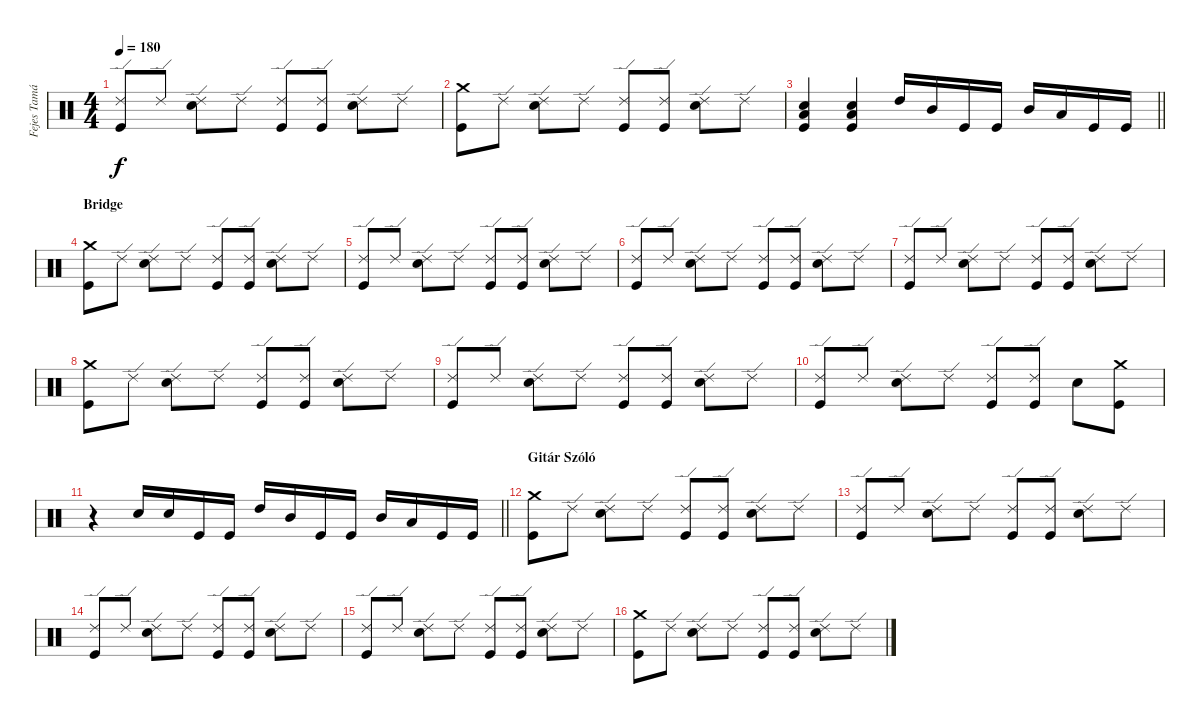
\track ("Fejes Tamás - Dob" "Fejes Tamá") {instrument percussion}
\staff {score}
\articulation defaults
\ts (4 4)
\tempo 180
\clef neutral
\ks c
("Ride (edge) 2" "Kick (hit)").8{dy f} "Ride (edge) 2".8 ("Ride (edge) 2" "Electric Snare (hit)").8 "Ride (edge) 2".8 ("Ride (edge) 2" "Kick (hit)").8 ("Ride (edge) 2" "Kick (hit)").8 ("Ride (edge) 2" "Electric Snare (hit)").8 "Ride (edge) 2".8 |
("Crash medium (hit)" "Kick (hit)").8 "Ride (edge) 2".8 ("Ride (edge) 2" "Electric Snare (hit)").8 "Ride (edge) 2".8 ("Ride (edge) 2" "Kick (hit)").8 ("Ride (edge) 2" "Kick (hit)").8 ("Ride (edge) 2" "Electric Snare (hit)").8 "Ride (edge) 2".8 |
\barLineRight lightlight
("Electric Snare (hit)" "Low Tom (hit)" "Kick (hit)").4 ("Electric Snare (hit)" "Low Tom (hit)" "Kick (hit)").4 "High Tom (hit)".16 "Mid Tom (hit)".16 "Kick (hit)".16 "Kick (hit)".16 "Mid Tom (hit)".16 "Low Tom (hit)".16 "Kick (hit)".16 "Kick (hit)".16 |
\section ("" "Bridge")
("Crash medium (hit)" "Kick (hit)").8 "Ride (edge) 2".8 ("Ride (edge) 2" "Electric Snare (hit)").8 "Ride (edge) 2".8 ("Ride (edge) 2" "Kick (hit)").8 ("Ride (edge) 2" "Kick (hit)").8 ("Ride (edge) 2" "Electric Snare (hit)").8 "Ride (edge) 2".8 |
("Ride (edge) 2" "Kick (hit)").8 "Ride (edge) 2".8 ("Ride (edge) 2" "Electric Snare (hit)").8 "Ride (edge) 2".8 ("Ride (edge) 2" "Kick (hit)").8 ("Ride (edge) 2" "Kick (hit)").8 ("Ride (edge) 2" "Electric Snare (hit)").8 "Ride (edge) 2".8 |
("Ride (edge) 2" "Kick (hit)").8 "Ride (edge) 2".8 ("Ride (edge) 2" "Electric Snare (hit)").8 "Ride (edge) 2".8 ("Ride (edge) 2" "Kick (hit)").8 ("Ride (edge) 2" "Kick (hit)").8 ("Ride (edge) 2" "Electric Snare (hit)").8 "Ride (edge) 2".8 |
("Ride (edge) 2" "Kick (hit)").8 "Ride (edge) 2".8 ("Ride (edge) 2" "Electric Snare (hit)").8 "Ride (edge) 2".8 ("Ride (edge) 2" "Kick (hit)").8 ("Ride (edge) 2" "Kick (hit)").8 ("Ride (edge) 2" "Electric Snare (hit)").8 "Ride (edge) 2".8 |
("Crash medium (hit)" "Kick (hit)").8 "Ride (edge) 2".8 ("Ride (edge) 2" "Electric Snare (hit)").8 "Ride (edge) 2".8 ("Ride (edge) 2" "Kick (hit)").8 ("Ride (edge) 2" "Kick (hit)").8 ("Ride (edge) 2" "Electric Snare (hit)").8 "Ride (edge) 2".8 |
("Ride (edge) 2" "Kick (hit)").8 "Ride (edge) 2".8 ("Ride (edge) 2" "Electric Snare (hit)").8 "Ride (edge) 2".8 ("Ride (edge) 2" "Kick (hit)").8 ("Ride (edge) 2" "Kick (hit)").8 ("Ride (edge) 2" "Electric Snare (hit)").8 "Ride (edge) 2".8 |
("Ride (edge) 2" "Kick (hit)").8 "Ride (edge) 2".8 ("Ride (edge) 2" "Electric Snare (hit)").8 "Ride (edge) 2".8 ("Ride (edge) 2" "Kick (hit)").8 ("Ride (edge) 2" "Kick (hit)").8 "Electric Snare (hit)".8 ("Crash medium (hit)" "Kick (hit)").8 |
\barLineRight lightlight
r.4 "Electric Snare (hit)".16 "Electric Snare (hit)".16 "Kick (hit)".16 "Kick (hit)".16 "High Tom (hit)".16 "Mid Tom (hit)".16 "Kick (hit)".16 "Kick (hit)".16 "Mid Tom (hit)".16 "Low Tom (hit)".16 "Kick (hit)".16 "Kick (hit)".16 |
\section ("" "Gitár Szóló")
("Crash medium (hit)" "Kick (hit)").8 "Ride (edge) 2".8 ("Ride (edge) 2" "Electric Snare (hit)").8 "Ride (edge) 2".8 ("Ride (edge) 2" "Kick (hit)").8 ("Ride (edge) 2" "Kick (hit)").8 ("Ride (edge) 2" "Electric Snare (hit)").8 "Ride (edge) 2".8 |
("Ride (edge) 2" "Kick (hit)").8 "Ride (edge) 2".8 ("Ride (edge) 2" "Electric Snare (hit)").8 "Ride (edge) 2".8 ("Ride (edge) 2" "Kick (hit)").8 ("Ride (edge) 2" "Kick (hit)").8 ("Ride (edge) 2" "Electric Snare (hit)").8 "Ride (edge) 2".8 |
("Ride (edge) 2" "Kick (hit)").8 "Ride (edge) 2".8 ("Ride (edge) 2" "Electric Snare (hit)").8 "Ride (edge) 2".8 ("Ride (edge) 2" "Kick (hit)").8 ("Ride (edge) 2" "Kick (hit)").8 ("Ride (edge) 2" "Electric Snare (hit)").8 "Ride (edge) 2".8 |
("Ride (edge) 2" "Kick (hit)").8 "Ride (edge) 2".8 ("Ride (edge) 2" "Electric Snare (hit)").8 "Ride (edge) 2".8 ("Ride (edge) 2" "Kick (hit)").8 ("Ride (edge) 2" "Kick (hit)").8 ("Ride (edge) 2" "Electric Snare (hit)").8 "Ride (edge) 2".8 |
("Crash medium (hit)" "Kick (hit)").8 "Ride (edge) 2".8 ("Ride (edge) 2" "Electric Snare (hit)").8 "Ride (edge) 2".8 ("Ride (edge) 2" "Kick (hit)").8 ("Ride (edge) 2" "Kick (hit)").8 ("Ride (edge) 2" "Electric Snare (hit)").8 "Ride (edge) 2".8
